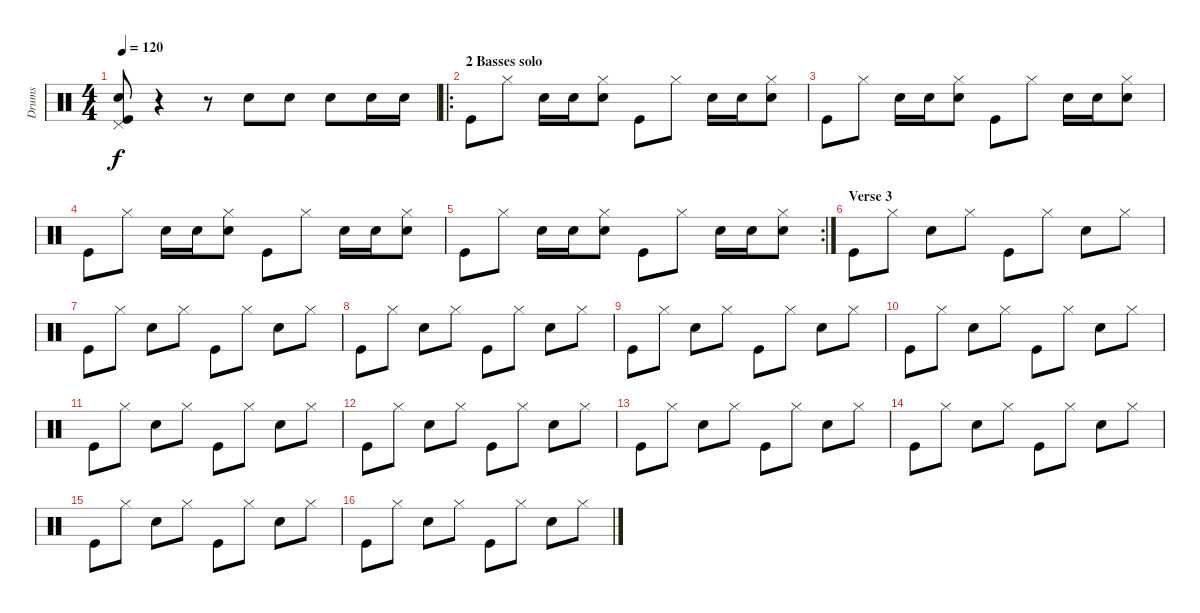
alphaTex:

\track ("Drums" "Drums") {instrument percussion}
\staff {score}
\articulation defaults
\ts (4 4)
\tempo 120
\clef neutral
\ks c
("Pedal Hi-Hat (hit)" "Snare (hit) 2" "Kick (hit)").8{dy f} r.4 r.8 "Snare (hit) 2".8 "Snare (hit) 2".8 "Snare (hit) 2".8 "Snare (hit) 2".16 "Snare (hit) 2".16 |
\ro
\section ("" "2 Basses solo")
"Kick (hit)".8 "Hi-Hat (closed)".8 "Snare (hit) 2".16 "Snare (hit) 2".16 ("Hi-Hat (closed)" "Snare (hit) 2").8 "Kick (hit)".8 "Hi-Hat (closed)".8 "Snare (hit) 2".16 "Snare (hit) 2".16 ("Hi-Hat (closed)" "Snare (hit) 2").8 |
"Kick (hit)".8 "Hi-Hat (closed)".8 "Snare (hit) 2".16 "Snare (hit) 2".16 ("Hi-Hat (closed)" "Snare (hit) 2").8 "Kick (hit)".8 "Hi-Hat (closed)".8 "Snare (hit) 2".16 "Snare (hit) 2".16 ("Hi-Hat (closed)" "Snare (hit) 2").8 |
"Kick (hit)".8 "Hi-Hat (closed)".8 "Snare (hit) 2".16 "Snare (hit) 2".16 ("Hi-Hat (closed)" "Snare (hit) 2").8 "Kick (hit)".8 "Hi-Hat (closed)".8 "Snare (hit) 2".16 "Snare (hit) 2".16 ("Hi-Hat (closed)" "Snare (hit) 2").8 |
\rc 2 "Kick (hit)".8 "Hi-Hat (closed)".8 "Snare (hit) 2".16 "Snare (hit) 2".16
("Hi-Hat (closed)" "Snare (hit) 2").8 "Kick (hit)".8 "Hi-Hat (closed)".8 "Snare (hit) 2".16 "Snare (hit) 2".16 ("Hi-Hat (closed)" "Snare (hit) 2").8 |
\section ("" "Verse 3")
"Kick (hit)".8 "Hi-Hat (closed)".8 "Snare (hit) 2".8 "Hi-Hat (closed)".8 "Kick (hit)".8 "Hi-Hat (closed)".8 "Snare (hit) 2".8 "Hi-Hat (closed)".8 |
"Kick (hit)".8 "Hi-Hat (closed)".8 "Snare (hit) 2".8 "Hi-Hat (closed)".8 "Kick (hit)".8 "Hi-Hat (closed)".8 "Snare (hit) 2".8 "Hi-Hat (closed)".8 |
"Kick (hit)".8 "Hi-Hat (closed)".8 "Snare (hit) 2".8 "Hi-Hat (closed)".8 "Kick (hit)".8 "Hi-Hat (closed)".8 "Snare (hit) 2".8 "Hi-Hat (closed)".8 |
"Kick (hit)".8 "Hi-Hat (closed)".8 "Snare (hit) 2".8 "Hi-Hat (closed)".8 "Kick (hit)".8 "Hi-Hat (closed)".8 "Snare (hit) 2".8 "Hi-Hat (closed)".8 |
"Kick (hit)".8 "Hi-Hat (closed)".8 "Snare (hit) 2".8 "Hi-Hat (closed)".8 "Kick (hit)".8 "Hi-Hat (closed)".8 "Snare (hit) 2".8 "Hi-Hat (closed)".8 |
"Kick (hit)".8 "Hi-Hat (closed)".8 "Snare (hit) 2".8 "Hi-Hat (closed)".8 "Kick (hit)".8 "Hi-Hat (closed)".8 "Snare (hit) 2".8 "Hi-Hat (closed)".8 |
"Kick (hit)".8 "Hi-Hat (closed)".8 "Snare (hit) 2".8 "Hi-Hat (closed)".8 "Kick (hit)".8 "Hi-Hat (closed)".8 "Snare (hit) 2".8 "Hi-Hat (closed)".8 |
"Kick (hit)".8 "Hi-Hat (closed)".8 "Snare (hit) 2".8 "Hi-Hat (closed)".8 "Kick (hit)".8 "Hi-Hat (closed)".8 "Snare (hit) 2".8 "Hi-Hat (closed)".8 |
"Kick (hit)".8 "Hi-Hat (closed)".8 "Snare (hit) 2".8 "Hi-Hat (closed)".8 "Kick (hit)".8 "Hi-Hat (closed)".8 "Snare (hit) 2".8 "Hi-Hat (closed)".8 |
"Kick (hit)".8 "Hi-Hat (closed)".8 "Snare (hit) 2".8 "Hi-Hat (closed)".8 "Kick (hit)".8 "Hi-Hat (closed)".8 "Snare (hit) 2".8 "Hi-Hat (closed)".8 |
"Kick (hit)".8 "Hi-Hat (closed)".8 "Snare (hit) 2".8 "Hi-Hat (closed)".8 "Kick (hit)".8 "Hi-Hat (closed)".8 "Snare (hit) 2".8 "Hi-Hat (closed)".8
